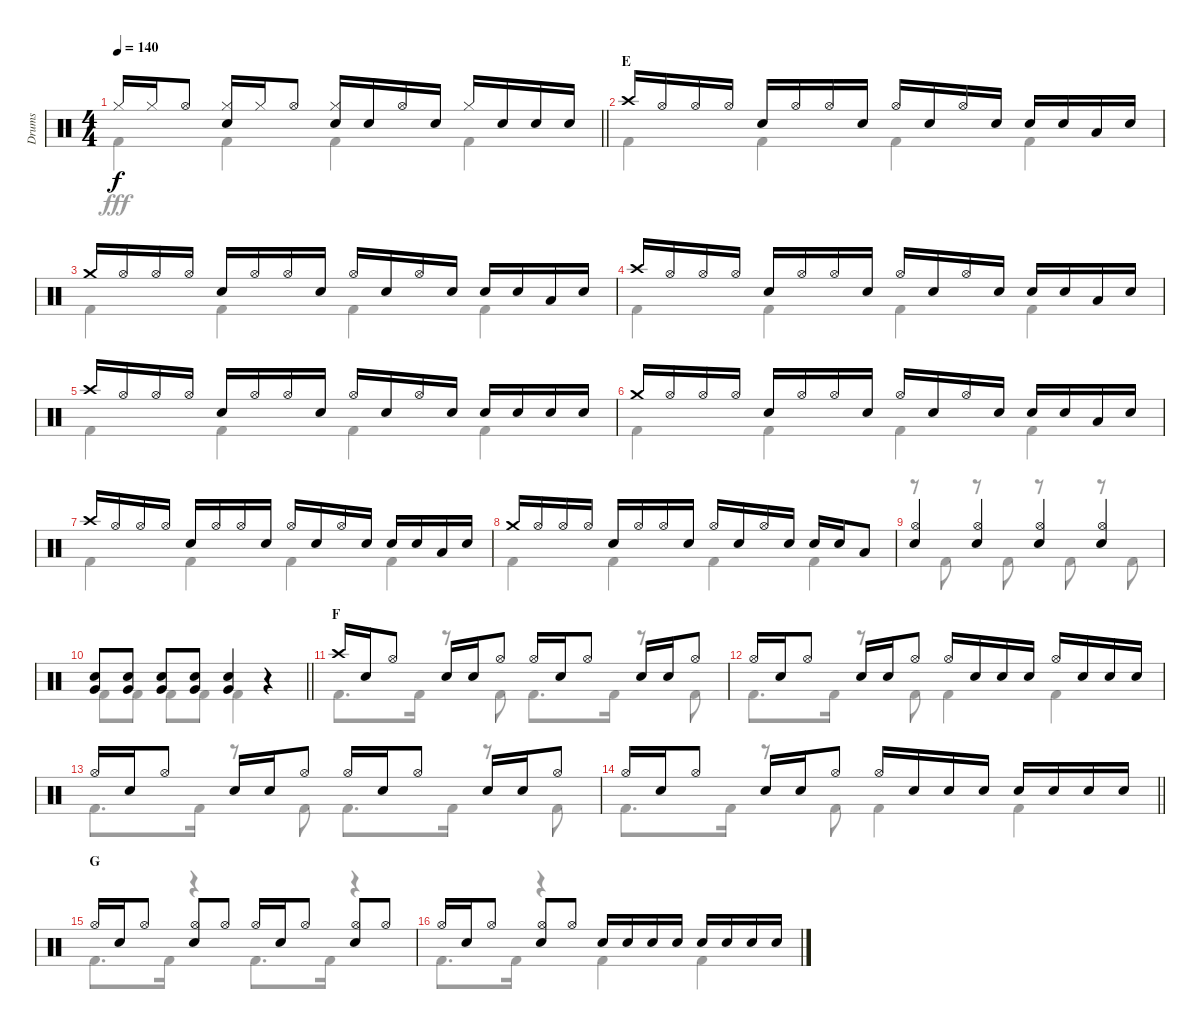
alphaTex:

\track ("Drums" "Drums") {instrument percussion}
\staff {score}
\articulation defaults
\voice
\ts (4 4)
\tempo 140
\clef neutral
\barLineRight lightlight
\ks c "Hi-Hat (closed)".16{dy f} "Hi-Hat (closed)".16 "Hi-Hat (open)".8
("Hi-Hat (closed)" "Snare (hit) 2").16 "Hi-Hat (closed)".16 "Hi-Hat (open)".8 ("Hi-Hat (closed)" "Snare (hit) 2").16 "Snare (hit) 2".16 "Hi-Hat (open)".16 "Snare (hit) 2".16 "Hi-Hat (closed)".16 "Snare (hit) 2".16 "Snare (hit) 2".16 "Snare (hit) 2".16 |
\section ("" "E")
"Crash high (hit)".16 "Hi-Hat (open)".16 "Hi-Hat (open)".16 "Hi-Hat (open)".16 "Snare (hit) 2".16 "Hi-Hat (open)".16 "Hi-Hat (open)".16 "Snare (hit) 2".16 "Hi-Hat (open)".16 "Snare (hit) 2".16 "Hi-Hat (open)".16 "Snare (hit) 2".16 "Snare (hit) 2".16 "Snare (hit) 2".16 "Low Tom (hit)".16 "Snare (hit) 2".16 |
"Crash medium (hit)".16 "Hi-Hat (open)".16 "Hi-Hat (open)".16 "Hi-Hat (open)".16 "Snare (hit) 2".16 "Hi-Hat (open)".16 "Hi-Hat (open)".16 "Snare (hit) 2".16 "Hi-Hat (open)".16 "Snare (hit) 2".16 "Hi-Hat (open)".16 "Snare (hit) 2".16 "Snare (hit) 2".16 "Snare (hit) 2".16 "Low Tom (hit)".16 "Snare (hit) 2".16 |
"Crash high (hit)".16 "Hi-Hat (open)".16 "Hi-Hat (open)".16 "Hi-Hat (open)".16 "Snare (hit) 2".16 "Hi-Hat (open)".16 "Hi-Hat (open)".16 "Snare (hit) 2".16 "Hi-Hat (open)".16 "Snare (hit) 2".16 "Hi-Hat (open)".16 "Snare (hit) 2".16 "Snare (hit) 2".16 "Snare (hit) 2".16 "Low Tom (hit)".16 "Snare (hit) 2".16 |
"Crash high (hit)".16 "Hi-Hat (open)".16 "Hi-Hat (open)".16 "Hi-Hat (open)".16 "Snare (hit) 2".16 "Hi-Hat (open)".16 "Hi-Hat (open)".16 "Snare (hit) 2".16 "Hi-Hat (open)".16 "Snare (hit) 2".16 "Hi-Hat (open)".16 "Snare (hit) 2".16 "Snare (hit) 2".16 "Snare (hit) 2".16 "Snare (hit) 2".16 "Snare (hit) 2".16 |
"Crash medium (hit)".16 "Hi-Hat (open)".16 "Hi-Hat (open)".16 "Hi-Hat (open)".16 "Snare (hit) 2".16 "Hi-Hat (open)".16 "Hi-Hat (open)".16 "Snare (hit) 2".16 "Hi-Hat (open)".16 "Snare (hit) 2".16 "Hi-Hat (open)".16 "Snare (hit) 2".16 "Snare (hit) 2".16 "Snare (hit) 2".16 "Low Tom (hit)".16 "Snare (hit) 2".16 |
"Crash high (hit)".16 "Hi-Hat (open)".16 "Hi-Hat (open)".16 "Hi-Hat (open)".16 "Snare (hit) 2".16 "Hi-Hat (open)".16 "Hi-Hat (open)".16 "Snare (hit) 2".16 "Hi-Hat (open)".16 "Snare (hit) 2".16 "Hi-Hat (open)".16 "Snare (hit) 2".16 "Snare (hit) 2".16 "Snare (hit) 2".16 "Low Tom (hit)".16 "Snare (hit) 2".16 |
"Crash medium (hit)".16 "Hi-Hat (open)".16 "Hi-Hat (open)".16 "Hi-Hat (open)".16 "Snare (hit) 2".16 "Hi-Hat (open)".16 "Hi-Hat (open)".16 "Snare (hit) 2".16 "Hi-Hat (open)".16 "Snare (hit) 2".16 "Hi-Hat (open)".16 "Snare (hit) 2".16 "Snare (hit) 2".16 "Snare (hit) 2".16 "Low Tom (hit)".8 |
("Hi-Hat (open)" "Snare (hit) 2").4 ("Hi-Hat (open)" "Snare (hit) 2").4 ("Hi-Hat (open)" "Snare (hit) 2").4 ("Hi-Hat (open)" "Snare (hit) 2").4 |
\barLineRight lightlight
("Snare (hit) 2" "Very Low Tom (hit)").8 ("Snare (hit) 2" "Very Low Tom (hit)").8 ("Snare (hit) 2" "Very Low Tom (hit)").8 ("Snare (hit) 2" "Very Low Tom (hit)").8 ("Snare (hit) 2" "Very Low Tom (hit)").4 r.4 |
\section ("" "F")
"Crash high (hit)".16 "Snare (hit) 2".16 "Hi-Hat (open)".8 "Snare (hit) 2".16 "Snare (hit) 2".16 "Hi-Hat (open)".8 "Hi-Hat (open)".16 "Snare (hit) 2".16 "Hi-Hat (open)".8 "Snare (hit) 2".16 "Snare (hit) 2".16 "Hi-Hat (open)".8 |
"Hi-Hat (open)".16 "Snare (hit) 2".16 "Hi-Hat (open)".8 "Snare (hit) 2".16 "Snare (hit) 2".16 "Hi-Hat (open)".8 "Hi-Hat (open)".16 "Snare (hit) 2".16 "Snare (hit) 2".16 "Snare (hit) 2".16 "Hi-Hat (open)".16 "Snare (hit) 2".16 "Snare (hit) 2".16 "Snare (hit) 2".16 |
"Hi-Hat (open)".16 "Snare (hit) 2".16 "Hi-Hat (open)".8 "Snare (hit) 2".16 "Snare (hit) 2".16 "Hi-Hat (open)".8 "Hi-Hat (open)".16 "Snare (hit) 2".16 "Hi-Hat (open)".8 "Snare (hit) 2".16 "Snare (hit) 2".16 "Hi-Hat (open)".8 |
\barLineRight lightlight "Hi-Hat (open)".16 "Snare (hit) 2".16 "Hi-Hat (open)".8 "Snare (hit) 2".16 "Snare (hit) 2".16 "Hi-Hat (open)".8 "Hi-Hat (open)".16 "Snare (hit) 2".16 "Snare (hit) 2".16 "Snare (hit) 2".16 "Snare (hit) 2".16 "Snare (hit) 2".16 "Snare (hit) 2".16 "Snare (hit) 2".16
|
\section ("" "G")
"Hi-Hat (open)".16 "Snare (hit) 2".16 "Hi-Hat (open)".8 ("Hi-Hat (open)" "Snare (hit) 2").8 "Hi-Hat (open)".8 "Hi-Hat (open)".16 "Snare (hit) 2".16 "Hi-Hat (open)".8 ("Hi-Hat (open)" "Snare (hit) 2").8 "Hi-Hat (open)".8 |
"Hi-Hat (open)".16 "Snare (hit) 2".16 "Hi-Hat (open)".8 ("Hi-Hat (open)" "Snare (hit) 2").8 "Hi-Hat (open)".8 "Snare (hit) 2".16 "Snare (hit) 2".16 "Snare (hit) 2".16 "Snare (hit) 2".16 "Snare (hit) 2".16 "Snare (hit) 2".16 "Snare (hit) 2".16 "Snare (hit) 2".16
\voice
\clef neutral
\ottava regular
\simile none
\barLineRight lightlight
\ks c "Kick (hit) 2".4{dy fff} "Kick (hit) 2".4 "Kick (hit) 2".4 "Kick (hit) 2".4
|
"Kick (hit) 2".4 "Kick (hit) 2".4 "Kick (hit) 2".4 "Kick (hit) 2".4 |
"Kick (hit) 2".4 "Kick (hit) 2".4 "Kick (hit) 2".4 "Kick (hit) 2".4 |
"Kick (hit) 2".4 "Kick (hit) 2".4 "Kick (hit) 2".4 "Kick (hit) 2".4 |
"Kick (hit) 2".4 "Kick (hit) 2".4 "Kick (hit) 2".4 "Kick (hit) 2".4 |
"Kick (hit) 2".4 "Kick (hit) 2".4 "Kick (hit) 2".4 "Kick (hit) 2".4 |
"Kick (hit) 2".4 "Kick (hit) 2".4 "Kick (hit) 2".4 "Kick (hit) 2".4 |
"Kick (hit) 2".4 "Kick (hit) 2".4 "Kick (hit) 2".4 "Kick (hit) 2".4 |
r.8 "Kick (hit) 2".8 r.8 "Kick (hit) 2".8 r.8 "Kick (hit) 2".8 r.8 "Kick (hit) 2".8 |
\barLineRight lightlight "Kick (hit) 2".8 "Kick (hit) 2".8 "Kick (hit) 2".8 "Kick (hit) 2".8 "Kick (hit) 2".4
r.4 |
"Kick (hit) 2".8{d} "Kick (hit) 2".16 r.8 "Kick (hit) 2".8 "Kick (hit) 2".8{d} "Kick (hit) 2".16 r.8 "Kick (hit) 2".8 |
"Kick (hit) 2".8{d} "Kick (hit) 2".16 r.8 "Kick (hit) 2".8 "Kick (hit) 2".4 "Kick (hit) 2".4 |
"Kick (hit) 2".8{d} "Kick (hit) 2".16 r.8 "Kick (hit) 2".8 "Kick (hit) 2".8{d} "Kick (hit) 2".16 r.8 "Kick (hit) 2".8 |
\barLineRight lightlight "Kick (hit) 2".8{d} "Kick (hit) 2".16
r.8 "Kick (hit) 2".8 "Kick (hit) 2".4 "Kick (hit) 2".4 |
"Kick (hit) 2".8{d} "Kick (hit) 2".16 r.4 "Kick (hit) 2".8{d} "Kick (hit) 2".16 r.4 |
"Kick (hit) 2".8{d} "Kick (hit) 2".16 r.4 "Kick (hit) 2".4 "Kick (hit) 2".4
